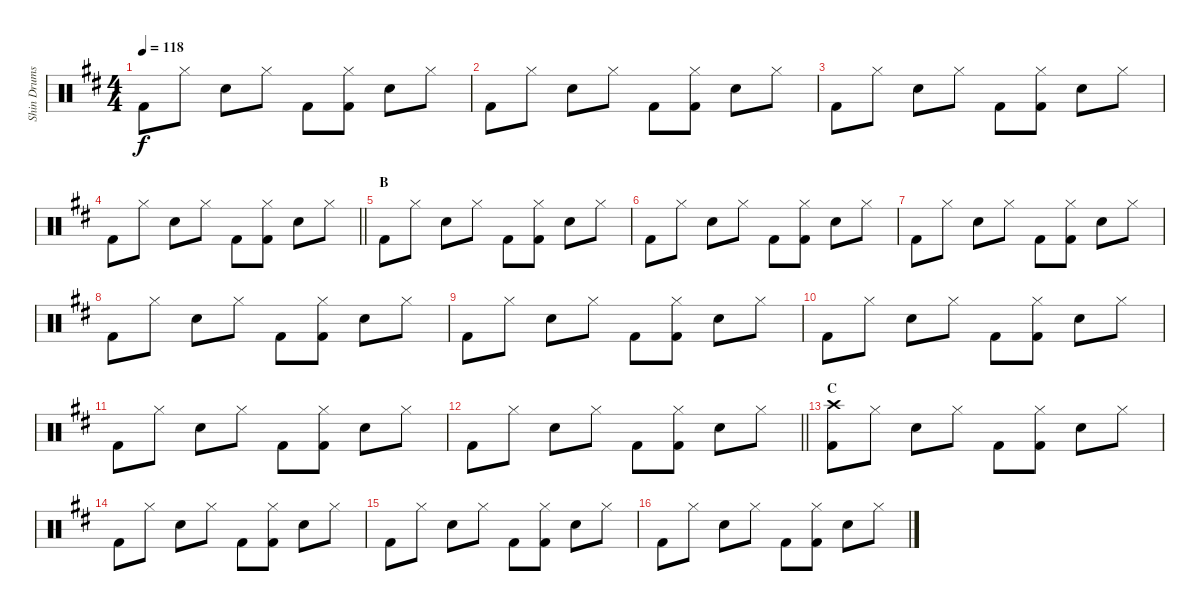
\track ("Shin Drums" "Shin Drums") {instrument percussion}
\staff {score}
\articulation defaults
\ts (4 4)
\tempo 118
\clef neutral
\ks d "Kick (hit) 2".8{dy f} "Hi-Hat (closed)".8 "Snare (hit) 2".8 "Hi-Hat (closed)".8 "Kick (hit) 2".8
("Hi-Hat (closed)" "Kick (hit) 2").8 "Snare (hit) 2".8 "Hi-Hat (closed)".8 |
"Kick (hit) 2".8 "Hi-Hat (closed)".8 "Snare (hit) 2".8 "Hi-Hat (closed)".8 "Kick (hit) 2".8 ("Hi-Hat (closed)" "Kick (hit) 2").8 "Snare (hit) 2".8 "Hi-Hat (closed)".8 |
"Kick (hit) 2".8 "Hi-Hat (closed)".8 "Snare (hit) 2".8 "Hi-Hat (closed)".8 "Kick (hit) 2".8 ("Hi-Hat (closed)" "Kick (hit) 2").8 "Snare (hit) 2".8 "Hi-Hat (closed)".8 |
\barLineRight lightlight "Kick (hit) 2".8 "Hi-Hat (closed)".8 "Snare (hit) 2".8 "Hi-Hat (closed)".8 "Kick (hit) 2".8
("Hi-Hat (closed)" "Kick (hit) 2").8 "Snare (hit) 2".8 "Hi-Hat (closed)".8 |
\section ("" "B")
"Kick (hit) 2".8 "Hi-Hat (closed)".8 "Snare (hit) 2".8 "Hi-Hat (closed)".8 "Kick (hit) 2".8 ("Hi-Hat (closed)" "Kick (hit) 2").8 "Snare (hit) 2".8 "Hi-Hat (closed)".8 |
"Kick (hit) 2".8 "Hi-Hat (closed)".8 "Snare (hit) 2".8 "Hi-Hat (closed)".8 "Kick (hit) 2".8 ("Hi-Hat (closed)" "Kick (hit) 2").8 "Snare (hit) 2".8 "Hi-Hat (closed)".8 |
"Kick (hit) 2".8 "Hi-Hat (closed)".8 "Snare (hit) 2".8 "Hi-Hat (closed)".8 "Kick (hit) 2".8 ("Hi-Hat (closed)" "Kick (hit) 2").8 "Snare (hit) 2".8 "Hi-Hat (closed)".8 |
"Kick (hit) 2".8 "Hi-Hat (closed)".8 "Snare (hit) 2".8 "Hi-Hat (closed)".8 "Kick (hit) 2".8 ("Hi-Hat (closed)" "Kick (hit) 2").8 "Snare (hit) 2".8 "Hi-Hat (closed)".8 |
"Kick (hit) 2".8 "Hi-Hat (closed)".8 "Snare (hit) 2".8 "Hi-Hat (closed)".8 "Kick (hit) 2".8 ("Hi-Hat (closed)" "Kick (hit) 2").8 "Snare (hit) 2".8 "Hi-Hat (closed)".8 |
"Kick (hit) 2".8 "Hi-Hat (closed)".8 "Snare (hit) 2".8 "Hi-Hat (closed)".8 "Kick (hit) 2".8 ("Hi-Hat (closed)" "Kick (hit) 2").8 "Snare (hit) 2".8 "Hi-Hat (closed)".8 |
"Kick (hit) 2".8 "Hi-Hat (closed)".8 "Snare (hit) 2".8 "Hi-Hat (closed)".8 "Kick (hit) 2".8 ("Hi-Hat (closed)" "Kick (hit) 2").8 "Snare (hit) 2".8 "Hi-Hat (closed)".8 |
\barLineRight lightlight "Kick (hit) 2".8 "Hi-Hat (closed)".8 "Snare (hit) 2".8 "Hi-Hat (closed)".8 "Kick (hit) 2".8
("Hi-Hat (closed)" "Kick (hit) 2").8 "Snare (hit) 2".8 "Hi-Hat (closed)".8 |
\section ("" "C")
("Crash high (hit)" "Kick (hit) 2").8 "Hi-Hat (closed)".8 "Snare (hit) 2".8 "Hi-Hat (closed)".8 "Kick (hit) 2".8 ("Hi-Hat (closed)" "Kick (hit) 2").8 "Snare (hit) 2".8 "Hi-Hat (closed)".8 |
"Kick (hit) 2".8 "Hi-Hat (closed)".8 "Snare (hit) 2".8 "Hi-Hat (closed)".8 "Kick (hit) 2".8 ("Hi-Hat (closed)" "Kick (hit) 2").8 "Snare (hit) 2".8 "Hi-Hat (closed)".8 |
"Kick (hit) 2".8 "Hi-Hat (closed)".8 "Snare (hit) 2".8 "Hi-Hat (closed)".8 "Kick (hit) 2".8 ("Hi-Hat (closed)" "Kick (hit) 2").8 "Snare (hit) 2".8 "Hi-Hat (closed)".8 |
"Kick (hit) 2".8 "Hi-Hat (closed)".8 "Snare (hit) 2".8 "Hi-Hat (closed)".8 "Kick (hit) 2".8 ("Hi-Hat (closed)" "Kick (hit) 2").8 "Snare (hit) 2".8 "Hi-Hat (closed)".8
